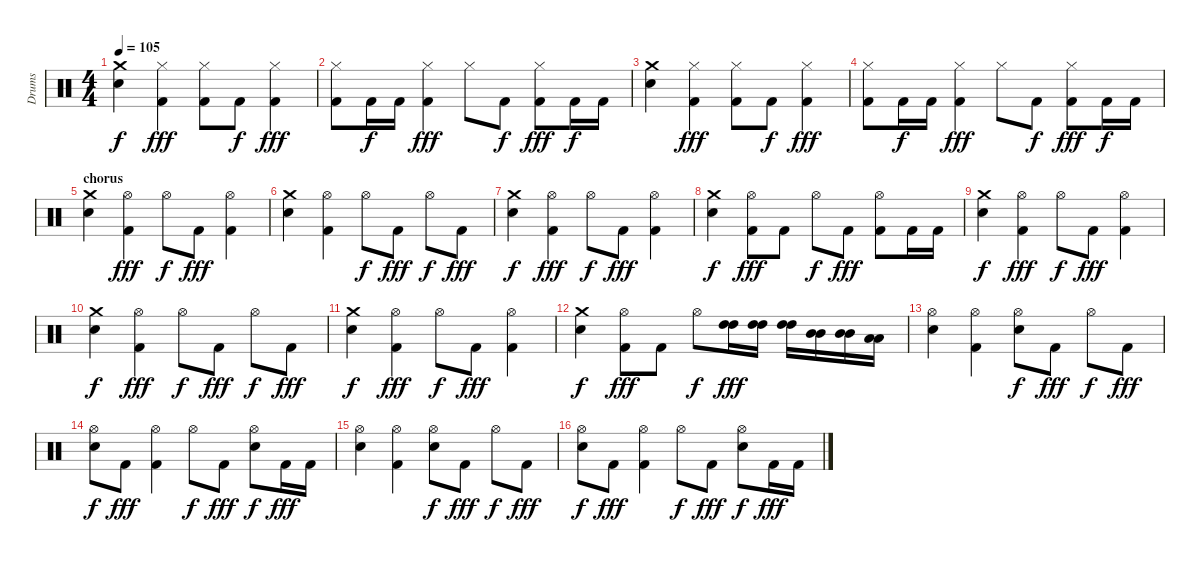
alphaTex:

\track ("Drums" "Drums") {instrument percussion}
\staff {score}
\articulation defaults
\ts (4 4)
\tempo 105
\clef neutral
\ks c
("Crash medium (hit)" "Electric Snare (hit)").4{dy f} ("Hi-Hat (closed)" "Kick (hit) 2").4{dy fff} ("Hi-Hat (closed)" "Kick (hit) 2").8 "Kick (hit) 2".8{dy f} ("Hi-Hat (closed)" "Kick (hit) 2").4{dy fff} |
("Hi-Hat (closed)" "Kick (hit) 2").8 "Kick (hit) 2".16{dy f} "Kick (hit) 2".16 ("Hi-Hat (closed)" "Kick (hit) 2").4{dy fff} "Hi-Hat (closed)".8 "Kick (hit) 2".8{dy f} ("Hi-Hat (closed)" "Kick (hit) 2").8{dy fff} "Kick (hit) 2".16{dy f} "Kick (hit) 2".16 |
("Crash medium (hit)" "Electric Snare (hit)").4 ("Hi-Hat (closed)" "Kick (hit) 2").4{dy fff} ("Hi-Hat (closed)" "Kick (hit) 2").8 "Kick (hit) 2".8{dy f} ("Hi-Hat (closed)" "Kick (hit) 2").4{dy fff} |
("Hi-Hat (closed)" "Kick (hit) 2").8 "Kick (hit) 2".16{dy f} "Kick (hit) 2".16 ("Hi-Hat (closed)" "Kick (hit) 2").4{dy fff} "Hi-Hat (closed)".8 "Kick (hit) 2".8{dy f} ("Hi-Hat (closed)" "Kick (hit) 2").8{dy fff} "Kick (hit) 2".16{dy f} "Kick (hit) 2".16 |
\section ("" "chorus")
("Crash medium (hit)" "Electric Snare (hit)").4 ("Hi-Hat (open)" "Kick (hit) 2").4{dy fff} "Hi-Hat (open)".8{dy f} "Kick (hit) 2".8{dy fff} ("Hi-Hat (open)" "Kick (hit) 2").4 |
("Crash medium (hit)" "Electric Snare (hit)").4 ("Hi-Hat (open)" "Kick (hit) 2").4 "Hi-Hat (open)".8{dy f} "Kick (hit) 2".8{dy fff} "Hi-Hat (open)".8{dy f} "Kick (hit) 2".8{dy fff} |
("Crash medium (hit)" "Electric Snare (hit)").4{dy f} ("Hi-Hat (open)" "Kick (hit) 2").4{dy fff} "Hi-Hat (open)".8{dy f} "Kick (hit) 2".8{dy fff} ("Hi-Hat (open)" "Kick (hit) 2").4 |
("Crash medium (hit)" "Electric Snare (hit)").4{dy f} ("Hi-Hat (open)" "Kick (hit) 2").8{dy fff} "Kick (hit) 2".8 "Hi-Hat (open)".8{dy f} "Kick (hit) 2".8{dy fff} ("Hi-Hat (open)" "Kick (hit) 2").8 "Kick (hit) 2".16 "Kick (hit) 2".16 |
("Crash medium (hit)" "Electric Snare (hit)").4{dy f} ("Hi-Hat (open)" "Kick (hit) 2").4{dy fff} "Hi-Hat (open)".8{dy f} "Kick (hit) 2".8{dy fff} ("Hi-Hat (open)" "Kick (hit) 2").4 |
("Crash medium (hit)" "Electric Snare (hit)").4{dy f} ("Hi-Hat (open)" "Kick (hit) 2").4{dy fff} "Hi-Hat (open)".8{dy f} "Kick (hit) 2".8{dy fff} "Hi-Hat (open)".8{dy f} "Kick (hit) 2".8{dy fff} |
("Crash medium (hit)" "Electric Snare (hit)").4{dy f} ("Hi-Hat (open)" "Kick (hit) 2").4{dy fff} "Hi-Hat (open)".8{dy f} "Kick (hit) 2".8{dy fff} ("Hi-Hat (open)" "Kick (hit) 2").4 |
("Crash medium (hit)" "Electric Snare (hit)").4{dy f} ("Hi-Hat (open)" "Kick (hit) 2").8{dy fff} "Kick (hit) 2".8 "Hi-Hat (open)".8{dy f} ("High Tom (hit)" "High Tom (hit)").16{dy fff} ("High Tom (hit)" "High Tom (hit)").16 ("High Tom (hit)" "High Tom (hit)").16 ("Mid Tom (hit)" "Mid Tom (hit)").16 ("Mid Tom (hit)" "Mid Tom (hit)").16 ("Low Tom (hit)" "Low Tom (hit)").16 |
("Hi-Hat (open)" "Electric Snare (hit)").4 ("Hi-Hat (open)" "Kick (hit) 2").4 ("Hi-Hat (open)" "Electric Snare (hit)").8{dy f} "Kick (hit) 2".8{dy fff} "Hi-Hat (open)".8{dy f} "Kick (hit) 2".8{dy fff} |
("Hi-Hat (open)" "Electric Snare (hit)").8{dy f} "Kick (hit) 2".8{dy fff} ("Hi-Hat (open)" "Kick (hit) 2").4 "Hi-Hat (open)".8{dy f} "Kick (hit) 2".8{dy fff} ("Hi-Hat (open)" "Electric Snare (hit)").8{dy f} "Kick (hit) 2".16{dy fff} "Kick (hit) 2".16 |
("Hi-Hat (open)" "Electric Snare (hit)").4 ("Hi-Hat (open)" "Kick (hit) 2").4 ("Hi-Hat (open)" "Electric Snare (hit)").8{dy f} "Kick (hit) 2".8{dy fff} "Hi-Hat (open)".8{dy f} "Kick (hit) 2".8{dy fff} |
("Hi-Hat (open)" "Electric Snare (hit)").8{dy f} "Kick (hit) 2".8{dy fff} ("Hi-Hat (open)" "Kick (hit) 2").4 "Hi-Hat (open)".8{dy f} "Kick (hit) 2".8{dy fff} ("Hi-Hat (open)" "Electric Snare (hit)").8{dy f} "Kick (hit) 2".16{dy fff} "Kick (hit) 2".16
